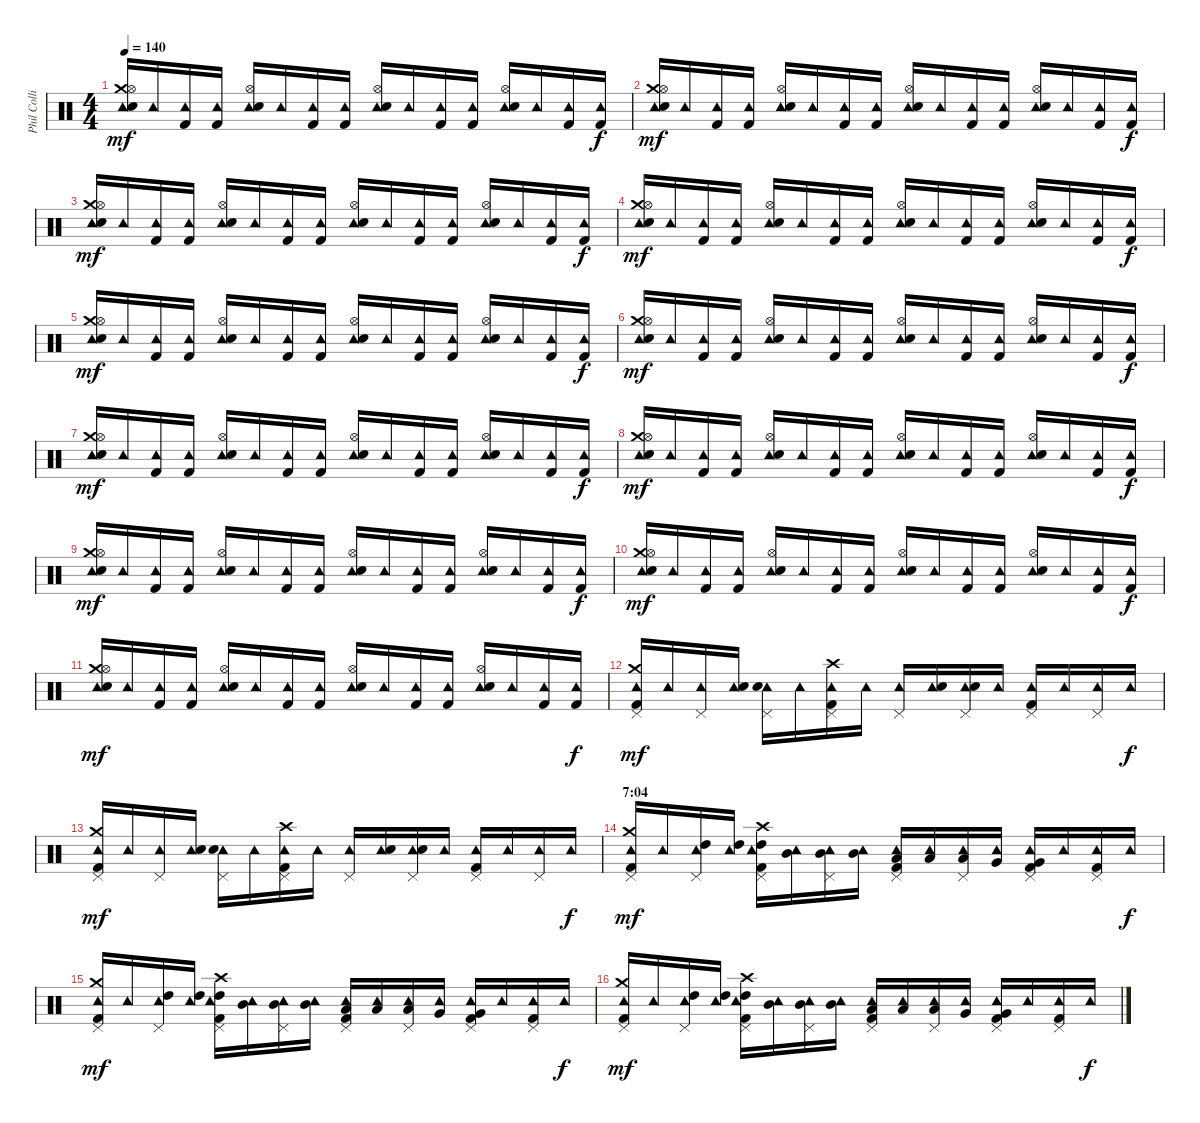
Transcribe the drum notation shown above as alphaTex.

\track ("Phil Collins (drums)" "Phil Colli") {instrument percussion}
\staff {score}
\articulation defaults
\ts (4 4)
\tempo 140
\clef neutral
\ks c
("Tambourine (hit)" "Crash medium (hit)" "Hi-Hat (open)" "Electric Snare (hit)").16{dy mf} "Tambourine (hit)".16 ("Tambourine (hit)" "Kick (hit) 2").16 ("Tambourine (hit)" "Kick (hit) 2").16 ("Tambourine (hit)" "Hi-Hat (open)" "Electric Snare (hit)").16 "Tambourine (hit)".16 ("Tambourine (hit)" "Kick (hit) 2").16 ("Tambourine (hit)" "Kick (hit) 2").16 ("Tambourine (hit)" "Hi-Hat (open)" "Electric Snare (hit)").16 "Tambourine (hit)".16 ("Tambourine (hit)" "Kick (hit) 2").16 ("Tambourine (hit)" "Kick (hit) 2").16 ("Tambourine (hit)" "Hi-Hat (open)" "Electric Snare (hit)").16 "Tambourine (hit)".16 ("Tambourine (hit)" "Kick (hit) 2").16 ("Tambourine (hit)" "Kick (hit) 2").16{dy f} |
("Tambourine (hit)" "Crash medium (hit)" "Hi-Hat (open)" "Electric Snare (hit)").16{dy mf} "Tambourine (hit)".16 ("Tambourine (hit)" "Kick (hit) 2").16 ("Tambourine (hit)" "Kick (hit) 2").16 ("Tambourine (hit)" "Hi-Hat (open)" "Electric Snare (hit)").16 "Tambourine (hit)".16 ("Tambourine (hit)" "Kick (hit) 2").16 ("Tambourine (hit)" "Kick (hit) 2").16 ("Tambourine (hit)" "Hi-Hat (open)" "Electric Snare (hit)").16 "Tambourine (hit)".16 ("Tambourine (hit)" "Kick (hit) 2").16 ("Tambourine (hit)" "Kick (hit) 2").16 ("Tambourine (hit)" "Hi-Hat (open)" "Electric Snare (hit)").16 "Tambourine (hit)".16 ("Tambourine (hit)" "Kick (hit) 2").16 ("Tambourine (hit)" "Kick (hit) 2").16{dy f} |
("Tambourine (hit)" "Crash medium (hit)" "Hi-Hat (open)" "Electric Snare (hit)").16{dy mf} "Tambourine (hit)".16 ("Tambourine (hit)" "Kick (hit) 2").16 ("Tambourine (hit)" "Kick (hit) 2").16 ("Tambourine (hit)" "Hi-Hat (open)" "Electric Snare (hit)").16 "Tambourine (hit)".16 ("Tambourine (hit)" "Kick (hit) 2").16 ("Tambourine (hit)" "Kick (hit) 2").16 ("Tambourine (hit)" "Hi-Hat (open)" "Electric Snare (hit)").16 "Tambourine (hit)".16 ("Tambourine (hit)" "Kick (hit) 2").16 ("Tambourine (hit)" "Kick (hit) 2").16 ("Tambourine (hit)" "Hi-Hat (open)" "Electric Snare (hit)").16 "Tambourine (hit)".16 ("Tambourine (hit)" "Kick (hit) 2").16 ("Tambourine (hit)" "Kick (hit) 2").16{dy f} |
("Tambourine (hit)" "Crash medium (hit)" "Hi-Hat (open)" "Electric Snare (hit)").16{dy mf} "Tambourine (hit)".16 ("Tambourine (hit)" "Kick (hit) 2").16 ("Tambourine (hit)" "Kick (hit) 2").16 ("Tambourine (hit)" "Hi-Hat (open)" "Electric Snare (hit)").16 "Tambourine (hit)".16 ("Tambourine (hit)" "Kick (hit) 2").16 ("Tambourine (hit)" "Kick (hit) 2").16 ("Tambourine (hit)" "Hi-Hat (open)" "Electric Snare (hit)").16 "Tambourine (hit)".16 ("Tambourine (hit)" "Kick (hit) 2").16 ("Tambourine (hit)" "Kick (hit) 2").16 ("Tambourine (hit)" "Hi-Hat (open)" "Electric Snare (hit)").16 "Tambourine (hit)".16 ("Tambourine (hit)" "Kick (hit) 2").16 ("Tambourine (hit)" "Kick (hit) 2").16{dy f} |
("Tambourine (hit)" "Crash medium (hit)" "Hi-Hat (open)" "Electric Snare (hit)").16{dy mf} "Tambourine (hit)".16 ("Tambourine (hit)" "Kick (hit) 2").16 ("Tambourine (hit)" "Kick (hit) 2").16 ("Tambourine (hit)" "Hi-Hat (open)" "Electric Snare (hit)").16 "Tambourine (hit)".16 ("Tambourine (hit)" "Kick (hit) 2").16 ("Tambourine (hit)" "Kick (hit) 2").16 ("Tambourine (hit)" "Hi-Hat (open)" "Electric Snare (hit)").16 "Tambourine (hit)".16 ("Tambourine (hit)" "Kick (hit) 2").16 ("Tambourine (hit)" "Kick (hit) 2").16 ("Tambourine (hit)" "Hi-Hat (open)" "Electric Snare (hit)").16 "Tambourine (hit)".16 ("Tambourine (hit)" "Kick (hit) 2").16 ("Tambourine (hit)" "Kick (hit) 2").16{dy f} |
("Tambourine (hit)" "Crash medium (hit)" "Hi-Hat (open)" "Electric Snare (hit)").16{dy mf} "Tambourine (hit)".16 ("Tambourine (hit)" "Kick (hit) 2").16 ("Tambourine (hit)" "Kick (hit) 2").16 ("Tambourine (hit)" "Hi-Hat (open)" "Electric Snare (hit)").16 "Tambourine (hit)".16 ("Tambourine (hit)" "Kick (hit) 2").16 ("Tambourine (hit)" "Kick (hit) 2").16 ("Tambourine (hit)" "Hi-Hat (open)" "Electric Snare (hit)").16 "Tambourine (hit)".16 ("Tambourine (hit)" "Kick (hit) 2").16 ("Tambourine (hit)" "Kick (hit) 2").16 ("Tambourine (hit)" "Hi-Hat (open)" "Electric Snare (hit)").16 "Tambourine (hit)".16 ("Tambourine (hit)" "Kick (hit) 2").16 ("Tambourine (hit)" "Kick (hit) 2").16{dy f} |
("Tambourine (hit)" "Crash medium (hit)" "Hi-Hat (open)" "Electric Snare (hit)").16{dy mf} "Tambourine (hit)".16 ("Tambourine (hit)" "Kick (hit) 2").16 ("Tambourine (hit)" "Kick (hit) 2").16 ("Tambourine (hit)" "Hi-Hat (open)" "Electric Snare (hit)").16 "Tambourine (hit)".16 ("Tambourine (hit)" "Kick (hit) 2").16 ("Tambourine (hit)" "Kick (hit) 2").16 ("Tambourine (hit)" "Hi-Hat (open)" "Electric Snare (hit)").16 "Tambourine (hit)".16 ("Tambourine (hit)" "Kick (hit) 2").16 ("Tambourine (hit)" "Kick (hit) 2").16 ("Tambourine (hit)" "Hi-Hat (open)" "Electric Snare (hit)").16 "Tambourine (hit)".16 ("Tambourine (hit)" "Kick (hit) 2").16 ("Tambourine (hit)" "Kick (hit) 2").16{dy f} |
("Tambourine (hit)" "Crash medium (hit)" "Hi-Hat (open)" "Electric Snare (hit)").16{dy mf} "Tambourine (hit)".16 ("Tambourine (hit)" "Kick (hit) 2").16 ("Tambourine (hit)" "Kick (hit) 2").16 ("Tambourine (hit)" "Hi-Hat (open)" "Electric Snare (hit)").16 "Tambourine (hit)".16 ("Tambourine (hit)" "Kick (hit) 2").16 ("Tambourine (hit)" "Kick (hit) 2").16 ("Tambourine (hit)" "Hi-Hat (open)" "Electric Snare (hit)").16 "Tambourine (hit)".16 ("Tambourine (hit)" "Kick (hit) 2").16 ("Tambourine (hit)" "Kick (hit) 2").16 ("Tambourine (hit)" "Hi-Hat (open)" "Electric Snare (hit)").16 "Tambourine (hit)".16 ("Tambourine (hit)" "Kick (hit) 2").16 ("Tambourine (hit)" "Kick (hit) 2").16{dy f} |
("Tambourine (hit)" "Crash medium (hit)" "Hi-Hat (open)" "Electric Snare (hit)").16{dy mf} "Tambourine (hit)".16 ("Tambourine (hit)" "Kick (hit) 2").16 ("Tambourine (hit)" "Kick (hit) 2").16 ("Tambourine (hit)" "Hi-Hat (open)" "Electric Snare (hit)").16 "Tambourine (hit)".16 ("Tambourine (hit)" "Kick (hit) 2").16 ("Tambourine (hit)" "Kick (hit) 2").16 ("Tambourine (hit)" "Hi-Hat (open)" "Electric Snare (hit)").16 "Tambourine (hit)".16 ("Tambourine (hit)" "Kick (hit) 2").16 ("Tambourine (hit)" "Kick (hit) 2").16 ("Tambourine (hit)" "Hi-Hat (open)" "Electric Snare (hit)").16 "Tambourine (hit)".16 ("Tambourine (hit)" "Kick (hit) 2").16 ("Tambourine (hit)" "Kick (hit) 2").16{dy f} |
("Tambourine (hit)" "Crash medium (hit)" "Hi-Hat (open)" "Electric Snare (hit)").16{dy mf} "Tambourine (hit)".16 ("Tambourine (hit)" "Kick (hit) 2").16 ("Tambourine (hit)" "Kick (hit) 2").16 ("Tambourine (hit)" "Hi-Hat (open)" "Electric Snare (hit)").16 "Tambourine (hit)".16 ("Tambourine (hit)" "Kick (hit) 2").16 ("Tambourine (hit)" "Kick (hit) 2").16 ("Tambourine (hit)" "Hi-Hat (open)" "Electric Snare (hit)").16 "Tambourine (hit)".16 ("Tambourine (hit)" "Kick (hit) 2").16 ("Tambourine (hit)" "Kick (hit) 2").16 ("Tambourine (hit)" "Hi-Hat (open)" "Electric Snare (hit)").16 "Tambourine (hit)".16 ("Tambourine (hit)" "Kick (hit) 2").16 ("Tambourine (hit)" "Kick (hit) 2").16{dy f} |
("Tambourine (hit)" "Crash medium (hit)" "Hi-Hat (open)" "Electric Snare (hit)").16{dy mf} "Tambourine (hit)".16 ("Tambourine (hit)" "Kick (hit) 2").16 ("Tambourine (hit)" "Kick (hit) 2").16 ("Tambourine (hit)" "Hi-Hat (open)" "Electric Snare (hit)").16 "Tambourine (hit)".16 ("Tambourine (hit)" "Kick (hit) 2").16 ("Tambourine (hit)" "Kick (hit) 2").16 ("Tambourine (hit)" "Hi-Hat (open)" "Electric Snare (hit)").16 "Tambourine (hit)".16 ("Tambourine (hit)" "Kick (hit) 2").16 ("Tambourine (hit)" "Kick (hit) 2").16 ("Tambourine (hit)" "Hi-Hat (open)" "Electric Snare (hit)").16 "Tambourine (hit)".16 ("Tambourine (hit)" "Kick (hit) 2").16 ("Tambourine (hit)" "Kick (hit) 2").16{dy f} |
("Tambourine (hit)" "Crash medium (hit)" "Pedal Hi-Hat (hit)" "Kick (hit) 2").16{dy mf} "Tambourine (hit)".16 ("Tambourine (hit)" "Pedal Hi-Hat (hit)").16 ("Tambourine (hit)" "Electric Snare (hit)").16 ("Tambourine (hit)" "Pedal Hi-Hat (hit)" "Electric Snare (hit)").16 "Tambourine (hit)".16 ("Tambourine (hit)" "Crash high (hit)" "Pedal Hi-Hat (hit)" "Kick (hit) 2").16 "Tambourine (hit)".16 ("Tambourine (hit)" "Pedal Hi-Hat (hit)").16 ("Tambourine (hit)" "Electric Snare (hit)").16 ("Tambourine (hit)" "Pedal Hi-Hat (hit)" "Electric Snare (hit)").16 "Tambourine (hit)".16 ("Tambourine (hit)" "Pedal Hi-Hat (hit)" "Kick (hit) 2").16 "Tambourine (hit)".16 ("Tambourine (hit)" "Pedal Hi-Hat (hit)").16 "Tambourine (hit)".16{dy f} |
("Tambourine (hit)" "Crash medium (hit)" "Pedal Hi-Hat (hit)" "Kick (hit) 2").16{dy mf} "Tambourine (hit)".16 ("Tambourine (hit)" "Pedal Hi-Hat (hit)").16 ("Tambourine (hit)" "Electric Snare (hit)").16 ("Tambourine (hit)" "Pedal Hi-Hat (hit)" "Electric Snare (hit)").16 "Tambourine (hit)".16 ("Tambourine (hit)" "Crash high (hit)" "Pedal Hi-Hat (hit)" "Kick (hit) 2").16 "Tambourine (hit)".16 ("Tambourine (hit)" "Pedal Hi-Hat (hit)").16 ("Tambourine (hit)" "Electric Snare (hit)").16 ("Tambourine (hit)" "Pedal Hi-Hat (hit)" "Electric Snare (hit)").16 "Tambourine (hit)".16 ("Tambourine (hit)" "Pedal Hi-Hat (hit)" "Kick (hit) 2").16 "Tambourine (hit)".16 ("Tambourine (hit)" "Pedal Hi-Hat (hit)").16 "Tambourine (hit)".16{dy f} |
\section ("" "7:04")
("Tambourine (hit)" "Crash medium (hit)" "Pedal Hi-Hat (hit)" "Kick (hit) 2").16{dy mf} "Tambourine (hit)".16 ("Tambourine (hit)" "High Tom (hit)" "Pedal Hi-Hat (hit)").16 ("Tambourine (hit)" "High Tom (hit)").16 ("Crash high (hit)" "Tambourine (hit)" "High Tom (hit)" "Pedal Hi-Hat (hit)" "Kick (hit) 2").16 ("Tambourine (hit)" "Mid Tom (hit)").16 ("Tambourine (hit)" "Mid Tom (hit)" "Pedal Hi-Hat (hit)").16 ("Tambourine (hit)" "Mid Tom (hit)").16 ("Tambourine (hit)" "Low Tom (hit)" "Pedal Hi-Hat (hit)" "Kick (hit) 2").16 ("Tambourine (hit)" "Low Tom (hit)").16 ("Tambourine (hit)" "Low Tom (hit)" "Pedal Hi-Hat (hit)").16 ("Tambourine (hit)" "Very Low Tom (hit)").16 ("Tambourine (hit)" "Very Low Tom (hit)" "Pedal Hi-Hat (hit)" "Kick (hit) 2").16 "Tambourine (hit)".16 ("Tambourine (hit)" "Pedal Hi-Hat (hit)" "Kick (hit) 2").16 "Tambourine (hit)".16{dy f} |
("Tambourine (hit)" "Crash medium (hit)" "Pedal Hi-Hat (hit)" "Kick (hit) 2").16{dy mf} "Tambourine (hit)".16 ("Tambourine (hit)" "High Tom (hit)" "Pedal Hi-Hat (hit)").16 ("Tambourine (hit)" "High Tom (hit)").16 ("Crash high (hit)" "Tambourine (hit)" "High Tom (hit)" "Pedal Hi-Hat (hit)" "Kick (hit) 2").16 ("Tambourine (hit)" "Mid Tom (hit)").16 ("Tambourine (hit)" "Mid Tom (hit)" "Pedal Hi-Hat (hit)").16 ("Tambourine (hit)" "Mid Tom (hit)").16 ("Tambourine (hit)" "Low Tom (hit)" "Pedal Hi-Hat (hit)" "Kick (hit) 2").16 ("Tambourine (hit)" "Low Tom (hit)").16 ("Tambourine (hit)" "Low Tom (hit)" "Pedal Hi-Hat (hit)").16 ("Tambourine (hit)" "Very Low Tom (hit)").16 ("Tambourine (hit)" "Very Low Tom (hit)" "Pedal Hi-Hat (hit)" "Kick (hit) 2").16 "Tambourine (hit)".16 ("Tambourine (hit)" "Pedal Hi-Hat (hit)" "Kick (hit) 2").16 "Tambourine (hit)".16{dy f} |
("Tambourine (hit)" "Crash medium (hit)" "Pedal Hi-Hat (hit)" "Kick (hit) 2").16{dy mf} "Tambourine (hit)".16 ("Tambourine (hit)" "High Tom (hit)" "Pedal Hi-Hat (hit)").16 ("Tambourine (hit)" "High Tom (hit)").16 ("Crash high (hit)" "Tambourine (hit)" "High Tom (hit)" "Pedal Hi-Hat (hit)" "Kick (hit) 2").16 ("Tambourine (hit)" "Mid Tom (hit)").16 ("Tambourine (hit)" "Mid Tom (hit)" "Pedal Hi-Hat (hit)").16 ("Tambourine (hit)" "Mid Tom (hit)").16 ("Tambourine (hit)" "Low Tom (hit)" "Pedal Hi-Hat (hit)" "Kick (hit) 2").16 ("Tambourine (hit)" "Low Tom (hit)").16 ("Tambourine (hit)" "Low Tom (hit)" "Pedal Hi-Hat (hit)").16 ("Tambourine (hit)" "Very Low Tom (hit)").16 ("Tambourine (hit)" "Very Low Tom (hit)" "Pedal Hi-Hat (hit)" "Kick (hit) 2").16 "Tambourine (hit)".16 ("Tambourine (hit)" "Pedal Hi-Hat (hit)" "Kick (hit) 2").16 "Tambourine (hit)".16{dy f}
